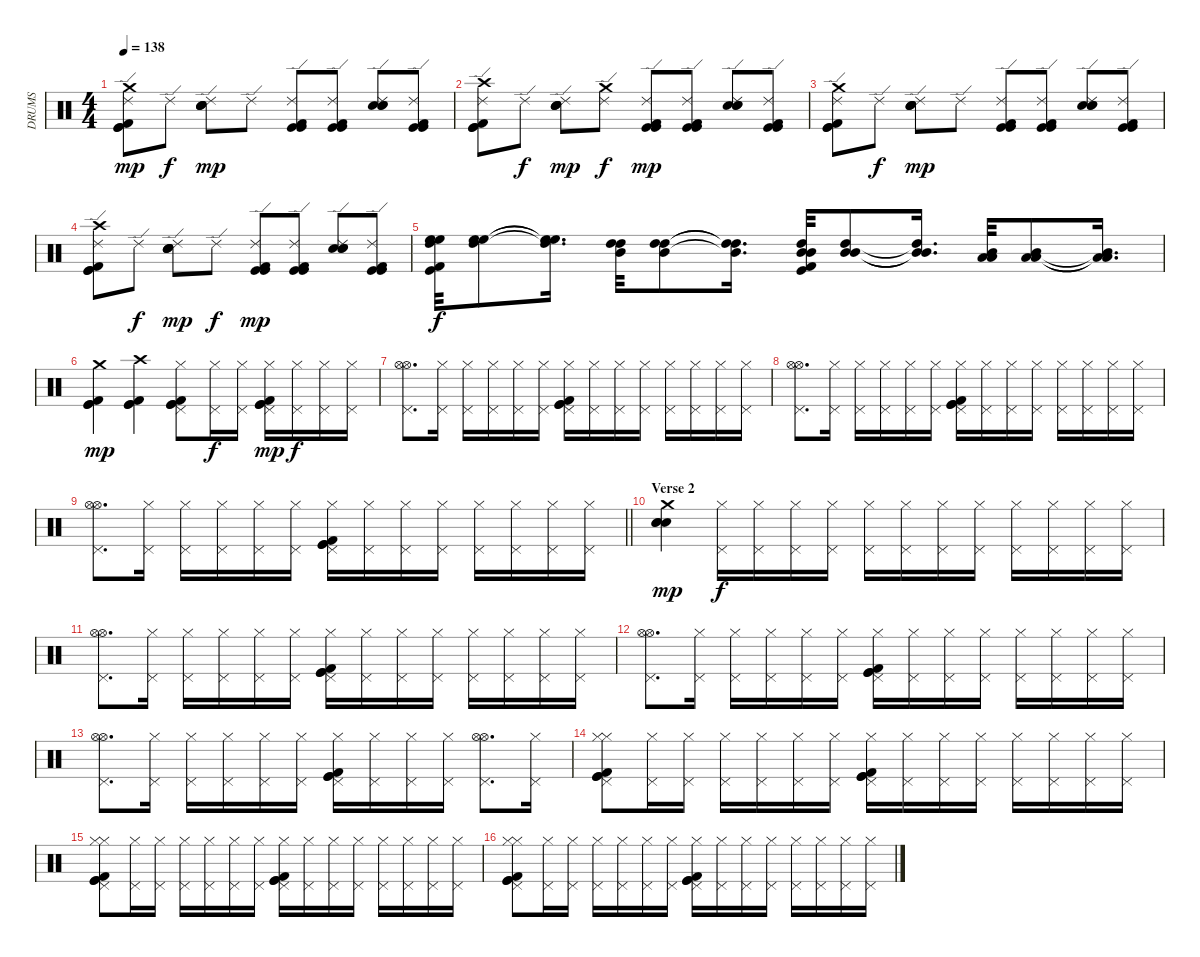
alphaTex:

\track ("DRUMS" "DRUMS") {instrument percussion}
\staff {score}
\articulation defaults
\ts (4 4)
\tempo 138
\clef neutral
\ks c
("Ride (edge) 2" "Kick (hit) 2" "Kick (hit)" "Kick (hit)" "Crash medium (hit)").8{dy mp} "Ride (edge) 2".8{dy f} ("Ride (edge) 2" "Electric Snare (hit)" "Snare (hit) 2" "Snare (hit) 2").8{dy mp} "Ride (edge) 2".8 ("Ride (edge) 2" "Kick (hit) 2" "Kick (hit)" "Kick (hit)").8 ("Ride (edge) 2" "Kick (hit) 2" "Kick (hit)" "Kick (hit)").8 ("Ride (edge) 2" "Electric Snare (hit)" "Snare (hit) 2" "Snare (hit) 2").8 ("Ride (edge) 2" "Kick (hit) 2" "Kick (hit)" "Kick (hit)").8 |
("Ride (edge) 2" "Kick (hit) 2" "Kick (hit)" "Kick (hit)" "Crash high (hit)").8 "Ride (edge) 2".8{dy f} ("Ride (edge) 2" "Electric Snare (hit)" "Snare (hit) 2" "Snare (hit) 2").8{dy mp} ("Ride (edge) 2" "Crash medium (hit)").8{dy f} ("Ride (edge) 2" "Kick (hit) 2" "Kick (hit)" "Kick (hit)").8{dy mp} ("Ride (edge) 2" "Kick (hit) 2" "Kick (hit)" "Kick (hit)").8 ("Ride (edge) 2" "Electric Snare (hit)" "Snare (hit) 2" "Snare (hit) 2").8 ("Ride (edge) 2" "Kick (hit) 2" "Kick (hit)" "Kick (hit)").8 |
("Ride (edge) 2" "Kick (hit) 2" "Kick (hit)" "Kick (hit)" "Crash medium (hit)").8 "Ride (edge) 2".8{dy f} ("Ride (edge) 2" "Electric Snare (hit)" "Snare (hit) 2" "Snare (hit) 2").8{dy mp} "Ride (edge) 2".8 ("Ride (edge) 2" "Kick (hit) 2" "Kick (hit)" "Kick (hit)").8 ("Ride (edge) 2" "Kick (hit) 2" "Kick (hit)" "Kick (hit)").8 ("Ride (edge) 2" "Electric Snare (hit)" "Snare (hit) 2" "Snare (hit) 2").8 ("Ride (edge) 2" "Kick (hit) 2" "Kick (hit)" "Kick (hit)").8 |
("Ride (edge) 2" "Kick (hit) 2" "Kick (hit)" "Kick (hit)" "Crash high (hit)").8 "Ride (edge) 2".8{dy f} ("Ride (edge) 2" "Electric Snare (hit)" "Snare (hit) 2" "Snare (hit) 2").8{dy mp} "Ride (edge) 2".8{dy f} ("Ride (edge) 2" "Kick (hit) 2" "Kick (hit)" "Kick (hit)").8{dy mp} ("Ride (edge) 2" "Kick (hit) 2" "Kick (hit)" "Kick (hit)").8 ("Ride (edge) 2" "Electric Snare (hit)" "Snare (hit) 2" "Snare (hit) 2").8 ("Ride (edge) 2" "Kick (hit) 2" "Kick (hit)" "Kick (hit)").8 |
("High Floor Tom (hit)" "High Tom (hit)" "High Floor Tom (hit)" "Kick (hit)" "Kick (hit) 2").32{dy f volume 12 balance 0} ("High Floor Tom (hit)" "High Tom (hit)" "High Floor Tom (hit)").8 ("High Floor Tom (hit)"{t} "High Tom (hit)"{t} "High Floor Tom (hit)"{t}).16{d} ("High Tom (hit)" "Mid Tom (hit)" "High Tom (hit)").32{volume 12 balance 4} ("High Tom (hit)" "Mid Tom (hit)" "High Tom (hit)").8 ("High Tom (hit)"{t} "Mid Tom (hit)"{t} "High Tom (hit)"{t}).16{d} ("High Tom (hit)" "Mid Tom (hit)" "Mid Tom (hit)" "Kick (hit)" "Kick (hit) 2").32{volume 12 balance 12} ("High Tom (hit)" "Mid Tom (hit)" "Mid Tom (hit)").8 ("High Tom (hit)"{t} "Mid Tom (hit)"{t} "Mid Tom (hit)"{t}).16{d} ("Low Tom (hit)" "Mid Tom (hit)" "Low Tom (hit)").32{volume 12 balance 16} ("Low Tom (hit)" "Mid Tom (hit)" "Low Tom (hit)").8 ("Low Tom (hit)"{t} "Mid Tom (hit)"{t} "Low Tom (hit)"{t}).16{d} |
("Kick (hit) 2" "Kick (hit)" "Kick (hit)" "Crash medium (hit)").4{dy mp volume 8 balance 8} ("Kick (hit) 2" "Kick (hit)" "Kick (hit)" "Crash high (hit)").4 ("Kick (hit) 2" "Kick (hit)" "Kick (hit)" "Hi-Hat (closed)" "Pedal Hi-Hat (hit)").8 ("Hi-Hat (closed)" "Pedal Hi-Hat (hit)").16{dy f} ("Hi-Hat (closed)" "Pedal Hi-Hat (hit)").16 ("Kick (hit) 2" "Kick (hit)" "Kick (hit)" "Hi-Hat (closed)" "Pedal Hi-Hat (hit)").16{dy mp} ("Hi-Hat (closed)" "Pedal Hi-Hat (hit)").16{dy f} ("Hi-Hat (closed)" "Pedal Hi-Hat (hit)").16 ("Hi-Hat (closed)" "Pedal Hi-Hat (hit)").16 |
("Hi-Hat (open)" "Pedal Hi-Hat (hit)" "Hi-Hat (open)").8{d volume 7} ("Hi-Hat (closed)" "Pedal Hi-Hat (hit)").16 ("Hi-Hat (closed)" "Pedal Hi-Hat (hit)").16 ("Hi-Hat (closed)" "Pedal Hi-Hat (hit)").16 ("Hi-Hat (closed)" "Pedal Hi-Hat (hit)").16 ("Hi-Hat (closed)" "Pedal Hi-Hat (hit)").16 ("Hi-Hat (closed)" "Pedal Hi-Hat (hit)" "Kick (hit) 2" "Kick (hit)" "Kick (hit)").16 ("Hi-Hat (closed)" "Pedal Hi-Hat (hit)").16 ("Hi-Hat (closed)" "Pedal Hi-Hat (hit)").16 ("Hi-Hat (closed)" "Pedal Hi-Hat (hit)").16 ("Hi-Hat (closed)" "Pedal Hi-Hat (hit)").16 ("Hi-Hat (closed)" "Pedal Hi-Hat (hit)").16 ("Hi-Hat (closed)" "Pedal Hi-Hat (hit)").16 ("Hi-Hat (closed)" "Pedal Hi-Hat (hit)").16 |
("Hi-Hat (open)" "Pedal Hi-Hat (hit)" "Hi-Hat (open)").8{d} ("Hi-Hat (closed)" "Pedal Hi-Hat (hit)").16 ("Hi-Hat (closed)" "Pedal Hi-Hat (hit)").16 ("Hi-Hat (closed)" "Pedal Hi-Hat (hit)").16 ("Hi-Hat (closed)" "Pedal Hi-Hat (hit)").16 ("Hi-Hat (closed)" "Pedal Hi-Hat (hit)").16 ("Hi-Hat (closed)" "Pedal Hi-Hat (hit)" "Kick (hit) 2" "Kick (hit)" "Kick (hit)").16 ("Hi-Hat (closed)" "Pedal Hi-Hat (hit)").16 ("Hi-Hat (closed)" "Pedal Hi-Hat (hit)").16 ("Hi-Hat (closed)" "Pedal Hi-Hat (hit)").16 ("Hi-Hat (closed)" "Pedal Hi-Hat (hit)").16 ("Hi-Hat (closed)" "Pedal Hi-Hat (hit)").16 ("Hi-Hat (closed)" "Pedal Hi-Hat (hit)").16 ("Hi-Hat (closed)" "Pedal Hi-Hat (hit)").16 |
\barLineRight lightlight
("Hi-Hat (open)" "Pedal Hi-Hat (hit)" "Hi-Hat (open)").8{d} ("Hi-Hat (closed)" "Pedal Hi-Hat (hit)").16 ("Hi-Hat (closed)" "Pedal Hi-Hat (hit)").16 ("Hi-Hat (closed)" "Pedal Hi-Hat (hit)").16 ("Hi-Hat (closed)" "Pedal Hi-Hat (hit)").16 ("Hi-Hat (closed)" "Pedal Hi-Hat (hit)").16 ("Hi-Hat (closed)" "Pedal Hi-Hat (hit)" "Kick (hit) 2" "Kick (hit)" "Kick (hit)").16 ("Hi-Hat (closed)" "Pedal Hi-Hat (hit)").16 ("Hi-Hat (closed)" "Pedal Hi-Hat (hit)").16 ("Hi-Hat (closed)" "Pedal Hi-Hat (hit)").16 ("Hi-Hat (closed)" "Pedal Hi-Hat (hit)").16 ("Hi-Hat (closed)" "Pedal Hi-Hat (hit)").16 ("Hi-Hat (closed)" "Pedal Hi-Hat (hit)").16 ("Hi-Hat (closed)" "Pedal Hi-Hat (hit)").16 |
\section ("" "Verse 2")
("Electric Snare (hit)" "Snare (hit) 2" "Snare (hit) 2" "Crash medium (hit)").4{dy mp volume 6} ("Hi-Hat (closed)" "Pedal Hi-Hat (hit)").16{dy f} ("Hi-Hat (closed)" "Pedal Hi-Hat (hit)").16 ("Hi-Hat (closed)" "Pedal Hi-Hat (hit)").16 ("Hi-Hat (closed)" "Pedal Hi-Hat (hit)").16 ("Hi-Hat (closed)" "Pedal Hi-Hat (hit)").16 ("Hi-Hat (closed)" "Pedal Hi-Hat (hit)").16 ("Hi-Hat (closed)" "Pedal Hi-Hat (hit)").16 ("Hi-Hat (closed)" "Pedal Hi-Hat (hit)").16 ("Hi-Hat (closed)" "Pedal Hi-Hat (hit)").16 ("Hi-Hat (closed)" "Pedal Hi-Hat (hit)").16 ("Hi-Hat (closed)" "Pedal Hi-Hat (hit)").16 ("Hi-Hat (closed)" "Pedal Hi-Hat (hit)").16 |
("Hi-Hat (open)" "Pedal Hi-Hat (hit)" "Hi-Hat (open)").8{d} ("Hi-Hat (closed)" "Pedal Hi-Hat (hit)").16 ("Hi-Hat (closed)" "Pedal Hi-Hat (hit)").16 ("Hi-Hat (closed)" "Pedal Hi-Hat (hit)").16 ("Hi-Hat (closed)" "Pedal Hi-Hat (hit)").16 ("Hi-Hat (closed)" "Pedal Hi-Hat (hit)").16 ("Hi-Hat (closed)" "Pedal Hi-Hat (hit)" "Kick (hit) 2" "Kick (hit)" "Kick (hit)").16 ("Hi-Hat (closed)" "Pedal Hi-Hat (hit)").16 ("Hi-Hat (closed)" "Pedal Hi-Hat (hit)").16 ("Hi-Hat (closed)" "Pedal Hi-Hat (hit)").16 ("Hi-Hat (closed)" "Pedal Hi-Hat (hit)").16 ("Hi-Hat (closed)" "Pedal Hi-Hat (hit)").16 ("Hi-Hat (closed)" "Pedal Hi-Hat (hit)").16 ("Hi-Hat (closed)" "Pedal Hi-Hat (hit)").16 |
("Hi-Hat (open)" "Pedal Hi-Hat (hit)" "Hi-Hat (open)").8{d} ("Hi-Hat (closed)" "Pedal Hi-Hat (hit)").16 ("Hi-Hat (closed)" "Pedal Hi-Hat (hit)").16 ("Hi-Hat (closed)" "Pedal Hi-Hat (hit)").16 ("Hi-Hat (closed)" "Pedal Hi-Hat (hit)").16 ("Hi-Hat (closed)" "Pedal Hi-Hat (hit)").16 ("Hi-Hat (closed)" "Pedal Hi-Hat (hit)" "Kick (hit) 2" "Kick (hit)" "Kick (hit)").16 ("Hi-Hat (closed)" "Pedal Hi-Hat (hit)").16 ("Hi-Hat (closed)" "Pedal Hi-Hat (hit)").16 ("Hi-Hat (closed)" "Pedal Hi-Hat (hit)").16 ("Hi-Hat (closed)" "Pedal Hi-Hat (hit)").16 ("Hi-Hat (closed)" "Pedal Hi-Hat (hit)").16 ("Hi-Hat (closed)" "Pedal Hi-Hat (hit)").16 ("Hi-Hat (closed)" "Pedal Hi-Hat (hit)").16 |
("Hi-Hat (open)" "Pedal Hi-Hat (hit)" "Hi-Hat (open)").8{d} ("Hi-Hat (closed)" "Pedal Hi-Hat (hit)").16 ("Hi-Hat (closed)" "Pedal Hi-Hat (hit)").16 ("Hi-Hat (closed)" "Pedal Hi-Hat (hit)").16 ("Hi-Hat (closed)" "Pedal Hi-Hat (hit)").16 ("Hi-Hat (closed)" "Pedal Hi-Hat (hit)").16 ("Hi-Hat (closed)" "Pedal Hi-Hat (hit)" "Kick (hit) 2" "Kick (hit)" "Kick (hit)").16 ("Hi-Hat (closed)" "Pedal Hi-Hat (hit)").16 ("Hi-Hat (closed)" "Pedal Hi-Hat (hit)").16 ("Hi-Hat (closed)" "Pedal Hi-Hat (hit)").16 ("Hi-Hat (open)" "Pedal Hi-Hat (hit)" "Hi-Hat (open)").8{d} ("Hi-Hat (closed)" "Pedal Hi-Hat (hit)").16 |
("Hi-Hat (closed)" "Pedal Hi-Hat (hit)" "Hi-Hat (closed)" "Kick (hit) 2" "Kick (hit)" "Kick (hit)").8 ("Hi-Hat (closed)" "Pedal Hi-Hat (hit)").16 ("Hi-Hat (closed)" "Pedal Hi-Hat (hit)").16 ("Hi-Hat (closed)" "Pedal Hi-Hat (hit)").16 ("Hi-Hat (closed)" "Pedal Hi-Hat (hit)").16 ("Hi-Hat (closed)" "Pedal Hi-Hat (hit)").16 ("Hi-Hat (closed)" "Pedal Hi-Hat (hit)").16 ("Hi-Hat (closed)" "Pedal Hi-Hat (hit)" "Kick (hit) 2" "Kick (hit)" "Kick (hit)").16 ("Hi-Hat (closed)" "Pedal Hi-Hat (hit)").16 ("Hi-Hat (closed)" "Pedal Hi-Hat (hit)").16 ("Hi-Hat (closed)" "Pedal Hi-Hat (hit)").16 ("Hi-Hat (closed)" "Pedal Hi-Hat (hit)").16 ("Hi-Hat (closed)" "Pedal Hi-Hat (hit)").16 ("Hi-Hat (closed)" "Pedal Hi-Hat (hit)").16 ("Hi-Hat (closed)" "Pedal Hi-Hat (hit)").16 |
("Hi-Hat (closed)" "Pedal Hi-Hat (hit)" "Hi-Hat (closed)" "Kick (hit) 2" "Kick (hit)" "Kick (hit)").8 ("Hi-Hat (closed)" "Pedal Hi-Hat (hit)").16 ("Hi-Hat (closed)" "Pedal Hi-Hat (hit)").16 ("Hi-Hat (closed)" "Pedal Hi-Hat (hit)").16 ("Hi-Hat (closed)" "Pedal Hi-Hat (hit)").16 ("Hi-Hat (closed)" "Pedal Hi-Hat (hit)").16 ("Hi-Hat (closed)" "Pedal Hi-Hat (hit)").16 ("Hi-Hat (closed)" "Pedal Hi-Hat (hit)" "Kick (hit) 2" "Kick (hit)" "Kick (hit)").16 ("Hi-Hat (closed)" "Pedal Hi-Hat (hit)").16 ("Hi-Hat (closed)" "Pedal Hi-Hat (hit)").16 ("Hi-Hat (closed)" "Pedal Hi-Hat (hit)").16 ("Hi-Hat (closed)" "Pedal Hi-Hat (hit)").16 ("Hi-Hat (closed)" "Pedal Hi-Hat (hit)").16 ("Hi-Hat (closed)" "Pedal Hi-Hat (hit)").16 ("Hi-Hat (closed)" "Pedal Hi-Hat (hit)").16 |
("Hi-Hat (closed)" "Pedal Hi-Hat (hit)" "Hi-Hat (closed)" "Kick (hit) 2" "Kick (hit)" "Kick (hit)").8 ("Hi-Hat (closed)" "Pedal Hi-Hat (hit)").16 ("Hi-Hat (closed)" "Pedal Hi-Hat (hit)").16 ("Hi-Hat (closed)" "Pedal Hi-Hat (hit)").16 ("Hi-Hat (closed)" "Pedal Hi-Hat (hit)").16 ("Hi-Hat (closed)" "Pedal Hi-Hat (hit)").16 ("Hi-Hat (closed)" "Pedal Hi-Hat (hit)").16 ("Hi-Hat (closed)" "Pedal Hi-Hat (hit)" "Kick (hit) 2" "Kick (hit)" "Kick (hit)").16 ("Hi-Hat (closed)" "Pedal Hi-Hat (hit)").16 ("Hi-Hat (closed)" "Pedal Hi-Hat (hit)").16 ("Hi-Hat (closed)" "Pedal Hi-Hat (hit)").16 ("Hi-Hat (closed)" "Pedal Hi-Hat (hit)").16 ("Hi-Hat (closed)" "Pedal Hi-Hat (hit)").16 ("Hi-Hat (closed)" "Pedal Hi-Hat (hit)").16 ("Hi-Hat (closed)" "Pedal Hi-Hat (hit)").16
